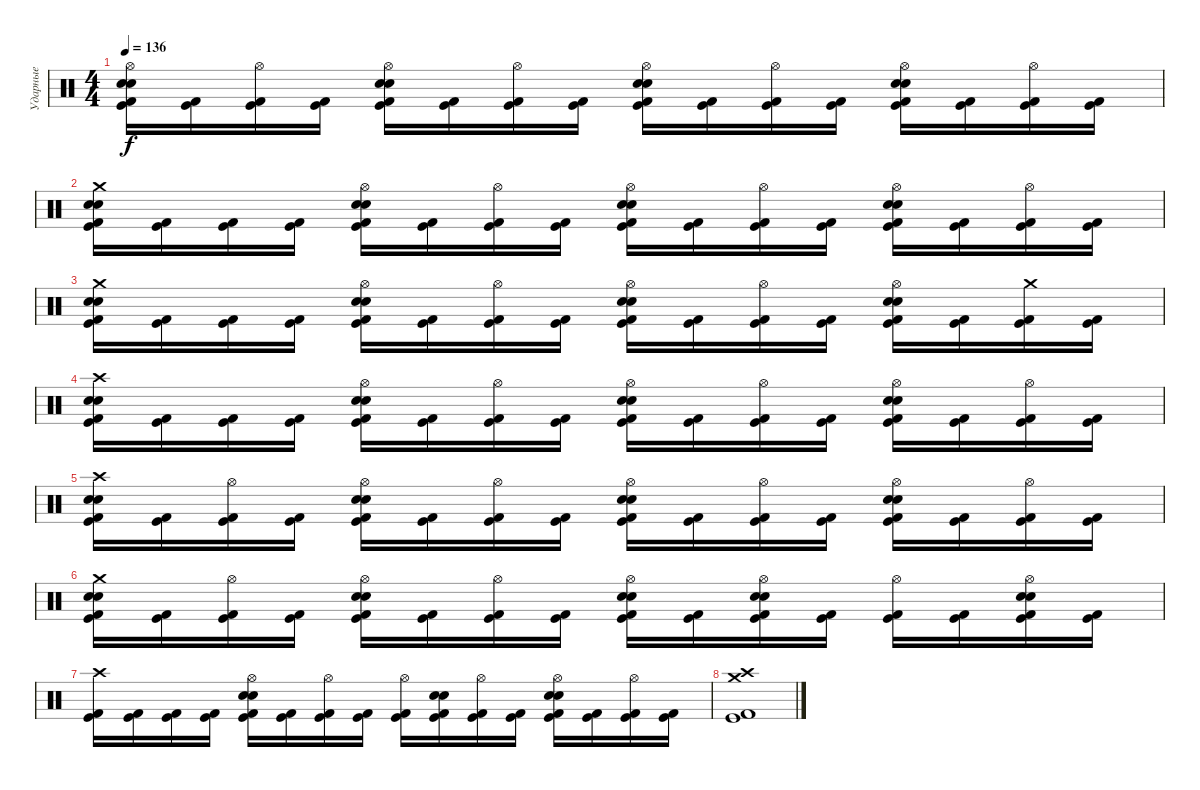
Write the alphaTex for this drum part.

\track ("Ударные" "Ударные") {instrument percussion}
\staff {score}
\articulation defaults
\ts (4 4)
\tempo 136
\clef neutral
\ks c
("Hi-Hat (open)" "Kick (hit)" "Kick (hit) 2" "Snare (hit) 2" "Electric Snare (hit)").16{dy f} ("Kick (hit)" "Kick (hit) 2").16 ("Hi-Hat (open)" "Kick (hit)" "Kick (hit) 2").16 ("Kick (hit)" "Kick (hit) 2").16 ("Hi-Hat (open)" "Kick (hit)" "Kick (hit) 2" "Snare (hit) 2" "Electric Snare (hit)").16 ("Kick (hit)" "Kick (hit) 2").16 ("Hi-Hat (open)" "Kick (hit)" "Kick (hit) 2").16 ("Kick (hit)" "Kick (hit) 2").16 ("Hi-Hat (open)" "Kick (hit)" "Kick (hit) 2" "Snare (hit) 2" "Electric Snare (hit)").16 ("Kick (hit)" "Kick (hit) 2").16 ("Hi-Hat (open)" "Kick (hit)" "Kick (hit) 2").16 ("Kick (hit)" "Kick (hit) 2").16 ("Hi-Hat (open)" "Kick (hit)" "Kick (hit) 2" "Snare (hit) 2" "Electric Snare (hit)").16 ("Kick (hit)" "Kick (hit) 2").16 ("Hi-Hat (open)" "Kick (hit)" "Kick (hit) 2").16 ("Kick (hit)" "Kick (hit) 2").16 |
("Crash medium (hit)" "Kick (hit)" "Kick (hit) 2" "Snare (hit) 2" "Electric Snare (hit)").16 ("Kick (hit)" "Kick (hit) 2").16 ("Kick (hit)" "Kick (hit) 2").16 ("Kick (hit)" "Kick (hit) 2").16 ("Hi-Hat (open)" "Kick (hit)" "Kick (hit) 2" "Snare (hit) 2" "Electric Snare (hit)").16 ("Kick (hit)" "Kick (hit) 2").16 ("Hi-Hat (open)" "Kick (hit)" "Kick (hit) 2").16 ("Kick (hit)" "Kick (hit) 2").16 ("Hi-Hat (open)" "Kick (hit)" "Kick (hit) 2" "Snare (hit) 2" "Electric Snare (hit)").16 ("Kick (hit)" "Kick (hit) 2").16 ("Hi-Hat (open)" "Kick (hit)" "Kick (hit) 2").16 ("Kick (hit)" "Kick (hit) 2").16 ("Hi-Hat (open)" "Kick (hit)" "Kick (hit) 2" "Snare (hit) 2" "Electric Snare (hit)").16 ("Kick (hit)" "Kick (hit) 2").16 ("Hi-Hat (open)" "Kick (hit)" "Kick (hit) 2").16 ("Kick (hit)" "Kick (hit) 2").16 |
("Crash medium (hit)" "Kick (hit)" "Kick (hit) 2" "Snare (hit) 2" "Electric Snare (hit)").16 ("Kick (hit)" "Kick (hit) 2").16 ("Kick (hit)" "Kick (hit) 2").16 ("Kick (hit)" "Kick (hit) 2").16 ("Hi-Hat (open)" "Kick (hit)" "Kick (hit) 2" "Snare (hit) 2" "Electric Snare (hit)").16 ("Kick (hit)" "Kick (hit) 2").16 ("Hi-Hat (open)" "Kick (hit)" "Kick (hit) 2").16 ("Kick (hit)" "Kick (hit) 2").16 ("Hi-Hat (open)" "Kick (hit)" "Kick (hit) 2" "Snare (hit) 2" "Electric Snare (hit)").16 ("Kick (hit)" "Kick (hit) 2").16 ("Hi-Hat (open)" "Kick (hit)" "Kick (hit) 2").16 ("Kick (hit)" "Kick (hit) 2").16 ("Hi-Hat (open)" "Kick (hit)" "Kick (hit) 2" "Snare (hit) 2" "Electric Snare (hit)").16 ("Kick (hit)" "Kick (hit) 2").16 ("Crash medium (hit)" "Kick (hit)" "Kick (hit) 2").16 ("Kick (hit)" "Kick (hit) 2").16 |
("Crash high (hit)" "Kick (hit)" "Kick (hit) 2" "Snare (hit) 2" "Electric Snare (hit)").16 ("Kick (hit)" "Kick (hit) 2").16 ("Kick (hit)" "Kick (hit) 2").16 ("Kick (hit)" "Kick (hit) 2").16 ("Hi-Hat (open)" "Kick (hit)" "Kick (hit) 2" "Snare (hit) 2" "Electric Snare (hit)").16 ("Kick (hit)" "Kick (hit) 2").16 ("Hi-Hat (open)" "Kick (hit)" "Kick (hit) 2").16 ("Kick (hit)" "Kick (hit) 2").16 ("Hi-Hat (open)" "Kick (hit)" "Kick (hit) 2" "Snare (hit) 2" "Electric Snare (hit)").16 ("Kick (hit)" "Kick (hit) 2").16 ("Hi-Hat (open)" "Kick (hit)" "Kick (hit) 2").16 ("Kick (hit)" "Kick (hit) 2").16 ("Hi-Hat (open)" "Kick (hit)" "Kick (hit) 2" "Snare (hit) 2" "Electric Snare (hit)").16 ("Kick (hit)" "Kick (hit) 2").16 ("Hi-Hat (open)" "Kick (hit)" "Kick (hit) 2").16 ("Kick (hit)" "Kick (hit) 2").16 |
("Crash high (hit)" "Kick (hit)" "Kick (hit) 2" "Snare (hit) 2" "Electric Snare (hit)").16 ("Kick (hit)" "Kick (hit) 2").16 ("Hi-Hat (open)" "Kick (hit)" "Kick (hit) 2").16 ("Kick (hit)" "Kick (hit) 2").16 ("Hi-Hat (open)" "Kick (hit)" "Kick (hit) 2" "Snare (hit) 2" "Electric Snare (hit)").16 ("Kick (hit)" "Kick (hit) 2").16 ("Hi-Hat (open)" "Kick (hit)" "Kick (hit) 2").16 ("Kick (hit)" "Kick (hit) 2").16 ("Hi-Hat (open)" "Kick (hit)" "Kick (hit) 2" "Snare (hit) 2" "Electric Snare (hit)").16 ("Kick (hit)" "Kick (hit) 2").16 ("Hi-Hat (open)" "Kick (hit)" "Kick (hit) 2").16 ("Kick (hit)" "Kick (hit) 2").16 ("Hi-Hat (open)" "Kick (hit)" "Kick (hit) 2" "Snare (hit) 2" "Electric Snare (hit)").16 ("Kick (hit)" "Kick (hit) 2").16 ("Hi-Hat (open)" "Kick (hit)" "Kick (hit) 2").16 ("Kick (hit)" "Kick (hit) 2").16 |
("Crash medium (hit)" "Kick (hit)" "Kick (hit) 2" "Snare (hit) 2" "Electric Snare (hit)").16 ("Kick (hit)" "Kick (hit) 2").16 ("Hi-Hat (open)" "Kick (hit)" "Kick (hit) 2").16 ("Kick (hit)" "Kick (hit) 2").16 ("Hi-Hat (open)" "Kick (hit)" "Kick (hit) 2" "Snare (hit) 2" "Electric Snare (hit)").16 ("Kick (hit)" "Kick (hit) 2").16 ("Hi-Hat (open)" "Kick (hit)" "Kick (hit) 2").16 ("Kick (hit)" "Kick (hit) 2").16 ("Hi-Hat (open)" "Kick (hit)" "Kick (hit) 2" "Snare (hit) 2" "Electric Snare (hit)").16 ("Kick (hit)" "Kick (hit) 2").16 ("Hi-Hat (open)" "Kick (hit)" "Kick (hit) 2" "Snare (hit) 2" "Electric Snare (hit)").16 ("Kick (hit)" "Kick (hit) 2").16 ("Hi-Hat (open)" "Kick (hit)" "Kick (hit) 2").16 ("Kick (hit)" "Kick (hit) 2").16 ("Hi-Hat (open)" "Kick (hit)" "Kick (hit) 2" "Snare (hit) 2" "Electric Snare (hit)").16 ("Kick (hit)" "Kick (hit) 2").16 |
("Crash high (hit)" "Kick (hit)" "Kick (hit) 2").16 ("Kick (hit)" "Kick (hit) 2").16 ("Kick (hit)" "Kick (hit) 2").16 ("Kick (hit)" "Kick (hit) 2").16 ("Hi-Hat (open)" "Kick (hit)" "Kick (hit) 2" "Snare (hit) 2" "Electric Snare (hit)").16 ("Kick (hit)" "Kick (hit) 2").16 ("Hi-Hat (open)" "Kick (hit)" "Kick (hit) 2").16 ("Kick (hit)" "Kick (hit) 2").16 ("Hi-Hat (open)" "Kick (hit)" "Kick (hit) 2").16 ("Kick (hit)" "Kick (hit) 2" "Snare (hit) 2" "Electric Snare (hit)").16 ("Hi-Hat (open)" "Kick (hit)" "Kick (hit) 2").16 ("Kick (hit)" "Kick (hit) 2").16 ("Hi-Hat (open)" "Kick (hit)" "Kick (hit) 2" "Snare (hit) 2" "Electric Snare (hit)").16 ("Kick (hit)" "Kick (hit) 2").16 ("Hi-Hat (open)" "Kick (hit)" "Kick (hit) 2").16 ("Kick (hit)" "Kick (hit) 2").16 |
("Crash high (hit)" "Kick (hit)" "Kick (hit) 2" "Crash medium (hit)").1
